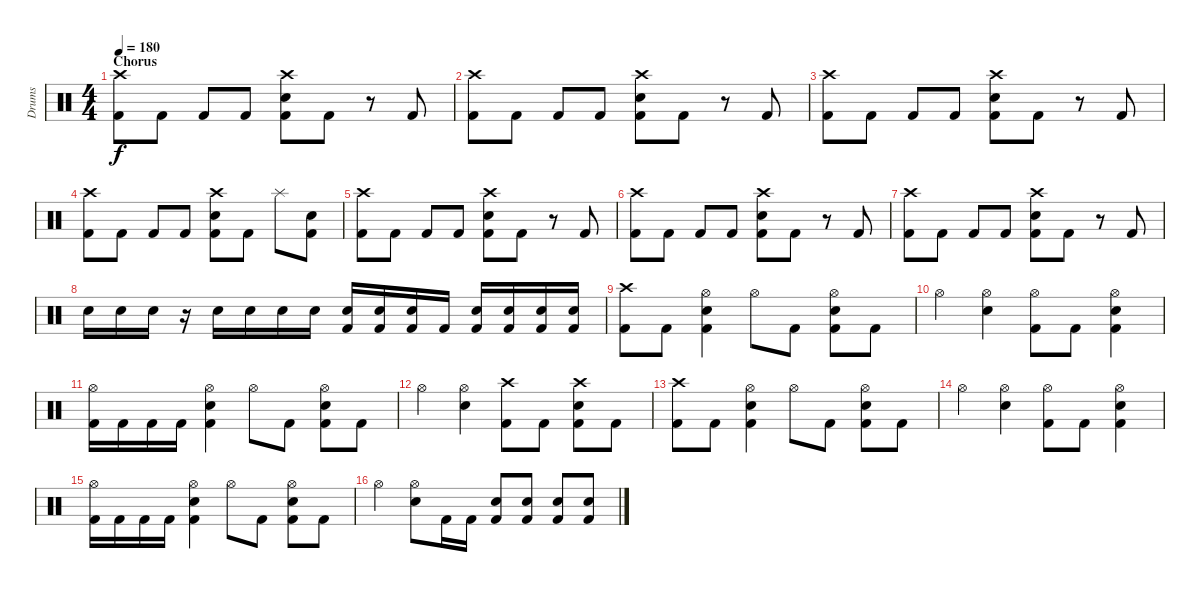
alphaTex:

\track ("Drums" "Drums") {instrument percussion}
\staff {score}
\articulation defaults
\ts (4 4)
\section ("" "Chorus")
\tempo 180
\clef neutral
\ks c
("Crash high (hit)" "Kick (hit) 2").8{dy f} "Kick (hit) 2".8 "Kick (hit) 2".8 "Kick (hit) 2".8 ("Crash high (hit)" "Electric Snare (hit)" "Kick (hit) 2").8 "Kick (hit) 2".8 r.8 "Kick (hit) 2".8 |
("Crash high (hit)" "Kick (hit) 2").8 "Kick (hit) 2".8 "Kick (hit) 2".8 "Kick (hit) 2".8 ("Crash high (hit)" "Electric Snare (hit)" "Kick (hit) 2").8 "Kick (hit) 2".8 r.8 "Kick (hit) 2".8 |
("Crash high (hit)" "Kick (hit) 2").8 "Kick (hit) 2".8 "Kick (hit) 2".8 "Kick (hit) 2".8 ("Crash high (hit)" "Electric Snare (hit)" "Kick (hit) 2").8 "Kick (hit) 2".8 r.8 "Kick (hit) 2".8 |
("Crash high (hit)" "Kick (hit) 2").8 "Kick (hit) 2".8 "Kick (hit) 2".8 "Kick (hit) 2".8 ("Crash high (hit)" "Electric Snare (hit)" "Kick (hit) 2").8 "Kick (hit) 2".8 "Splash (hit)".8 ("Electric Snare (hit)" "Kick (hit) 2").8 |
("Crash high (hit)" "Kick (hit) 2").8 "Kick (hit) 2".8 "Kick (hit) 2".8 "Kick (hit) 2".8 ("Crash high (hit)" "Electric Snare (hit)" "Kick (hit) 2").8 "Kick (hit) 2".8 r.8 "Kick (hit) 2".8 |
("Crash high (hit)" "Kick (hit) 2").8 "Kick (hit) 2".8 "Kick (hit) 2".8 "Kick (hit) 2".8 ("Crash high (hit)" "Electric Snare (hit)" "Kick (hit) 2").8 "Kick (hit) 2".8 r.8 "Kick (hit) 2".8 |
("Crash high (hit)" "Kick (hit) 2").8 "Kick (hit) 2".8 "Kick (hit) 2".8 "Kick (hit) 2".8 ("Crash high (hit)" "Electric Snare (hit)" "Kick (hit) 2").8 "Kick (hit) 2".8 r.8 "Kick (hit) 2".8 |
"Electric Snare (hit)".16 "Electric Snare (hit)".16 "Electric Snare (hit)".16 r.16 "Electric Snare (hit)".16 "Electric Snare (hit)".16 "Electric Snare (hit)".16 "Electric Snare (hit)".16 ("Electric Snare (hit)" "Kick (hit) 2").16 ("Electric Snare (hit)" "Kick (hit) 2").16 ("Electric Snare (hit)" "Kick (hit) 2").16 "Kick (hit) 2".16 ("Electric Snare (hit)" "Kick (hit) 2").16 ("Electric Snare (hit)" "Kick (hit) 2").16 ("Electric Snare (hit)" "Kick (hit) 2").16 ("Electric Snare (hit)" "Kick (hit) 2").16 |
("Crash high (hit)" "Kick (hit) 2").8 "Kick (hit) 2".8 ("Hi-Hat (open)" "Electric Snare (hit)" "Kick (hit) 2").4 "Hi-Hat (open)".8 "Kick (hit) 2".8 ("Hi-Hat (open)" "Electric Snare (hit)" "Kick (hit) 2").8 "Kick (hit) 2".8 |
"Hi-Hat (open)".4 ("Hi-Hat (open)" "Electric Snare (hit)").4 ("Hi-Hat (open)" "Kick (hit) 2").8 "Kick (hit) 2".8 ("Hi-Hat (open)" "Electric Snare (hit)" "Kick (hit) 2").4 |
("Hi-Hat (open)" "Kick (hit) 2").16 "Kick (hit) 2".16 "Kick (hit) 2".16 "Kick (hit) 2".16 ("Hi-Hat (open)" "Electric Snare (hit)" "Kick (hit) 2").4 "Hi-Hat (open)".8 "Kick (hit) 2".8 ("Hi-Hat (open)" "Electric Snare (hit)" "Kick (hit) 2").8 "Kick (hit) 2".8 |
"Hi-Hat (open)".4 ("Hi-Hat (open)" "Electric Snare (hit)").4 ("Crash high (hit)" "Kick (hit) 2").8 "Kick (hit) 2".8 ("Crash high (hit)" "Electric Snare (hit)" "Kick (hit) 2").8 "Kick (hit) 2".8 |
("Crash high (hit)" "Kick (hit) 2").8 "Kick (hit) 2".8 ("Hi-Hat (open)" "Electric Snare (hit)" "Kick (hit) 2").4 "Hi-Hat (open)".8 "Kick (hit) 2".8 ("Hi-Hat (open)" "Electric Snare (hit)" "Kick (hit) 2").8 "Kick (hit) 2".8 |
"Hi-Hat (open)".4 ("Hi-Hat (open)" "Electric Snare (hit)").4 ("Hi-Hat (open)" "Kick (hit) 2").8 "Kick (hit) 2".8 ("Hi-Hat (open)" "Electric Snare (hit)" "Kick (hit) 2").4 |
("Hi-Hat (open)" "Kick (hit) 2").16 "Kick (hit) 2".16 "Kick (hit) 2".16 "Kick (hit) 2".16 ("Hi-Hat (open)" "Electric Snare (hit)" "Kick (hit) 2").4 "Hi-Hat (open)".8 "Kick (hit) 2".8 ("Hi-Hat (open)" "Electric Snare (hit)" "Kick (hit) 2").8 "Kick (hit) 2".8 |
"Hi-Hat (open)".4 ("Hi-Hat (open)" "Electric Snare (hit)").8 "Kick (hit) 2".16 "Kick (hit) 2".16 ("Electric Snare (hit)" "Kick (hit) 2").8 ("Electric Snare (hit)" "Kick (hit) 2").8 ("Electric Snare (hit)" "Kick (hit) 2").8 ("Electric Snare (hit)" "Kick (hit) 2").8
